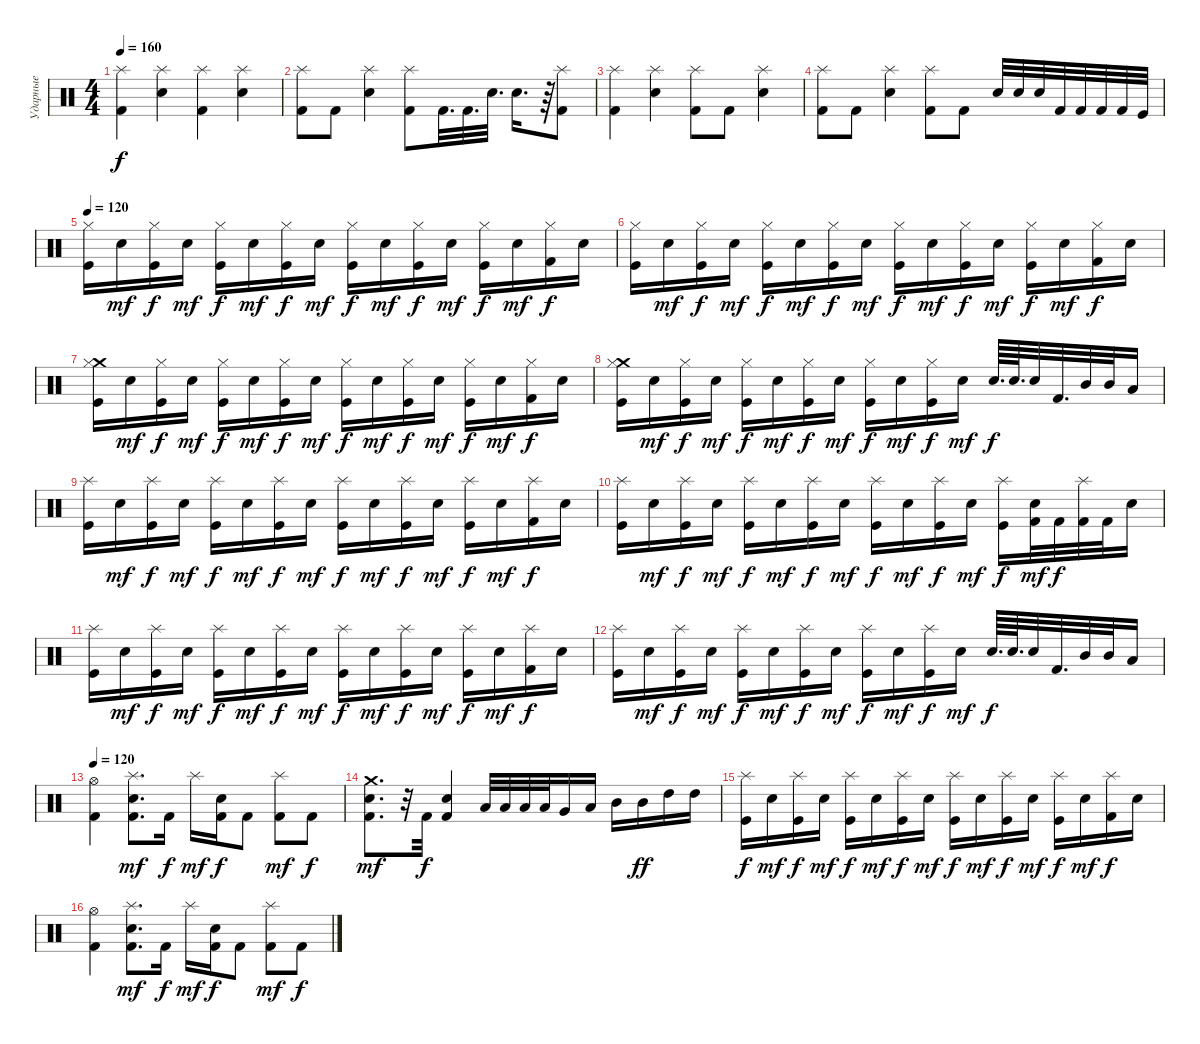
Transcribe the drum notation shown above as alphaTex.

\track ("Ударные" "Ударные") {instrument percussion}
\staff {score}
\articulation defaults
\ts (4 4)
\tempo 160
\clef neutral
\ks c
("Splash (hit)" "Kick (hit) 2").4{dy f} ("Splash (hit)" "Electric Snare (hit)").4 ("Splash (hit)" "Kick (hit) 2").4 ("Splash (hit)" "Electric Snare (hit)").4 |
("Splash (hit)" "Kick (hit) 2").8 "Kick (hit) 2".8 ("Splash (hit)" "Electric Snare (hit)").4 ("Splash (hit)" "Kick (hit) 2").8 "Kick (hit) 2".32{d} "Kick (hit) 2".32{d} "Electric Snare (hit)".32{d} "Electric Snare (hit)".16{d} r.64 ("Splash (hit)" "Kick (hit) 2").8 |
("Splash (hit)" "Kick (hit) 2").4 ("Splash (hit)" "Electric Snare (hit)").4 ("Splash (hit)" "Kick (hit) 2").8 "Kick (hit) 2".8 ("Splash (hit)" "Electric Snare (hit)").4 |
("Splash (hit)" "Kick (hit) 2").8 "Kick (hit) 2".8 ("Splash (hit)" "Electric Snare (hit)").4 ("Splash (hit)" "Kick (hit) 2").8 "Kick (hit) 2".8 "Electric Snare (hit)".32 "Electric Snare (hit)".32 "Electric Snare (hit)".32 "Kick (hit) 2".32 "Kick (hit) 2".32 "Kick (hit) 2".32 "Kick (hit) 2".32 "Kick (hit)".32 |
\tempo 120
("Hi-Hat (closed)" "Kick (hit)").16 "Electric Snare (hit)".16{dy mf} ("Hi-Hat (closed)" "Kick (hit)").16{dy f} "Electric Snare (hit)".16{dy mf} ("Hi-Hat (closed)" "Kick (hit)").16{dy f} "Electric Snare (hit)".16{dy mf} ("Hi-Hat (closed)" "Kick (hit)").16{dy f} "Electric Snare (hit)".16{dy mf} ("Hi-Hat (closed)" "Kick (hit)").16{dy f} "Electric Snare (hit)".16{dy mf} ("Hi-Hat (closed)" "Kick (hit)").16{dy f} "Electric Snare (hit)".16{dy mf} ("Hi-Hat (closed)" "Kick (hit)").16{dy f} "Electric Snare (hit)".16{dy mf} ("Hi-Hat (closed)" "Kick (hit) 2").16{dy f} "Electric Snare (hit)".16 |
("Hi-Hat (closed)" "Kick (hit)").16 "Electric Snare (hit)".16{dy mf} ("Hi-Hat (closed)" "Kick (hit)").16{dy f} "Electric Snare (hit)".16{dy mf} ("Hi-Hat (closed)" "Kick (hit)").16{dy f} "Electric Snare (hit)".16{dy mf} ("Hi-Hat (closed)" "Kick (hit)").16{dy f} "Electric Snare (hit)".16{dy mf} ("Hi-Hat (closed)" "Kick (hit)").16{dy f} "Electric Snare (hit)".16{dy mf} ("Hi-Hat (closed)" "Kick (hit)").16{dy f} "Electric Snare (hit)".16{dy mf} ("Hi-Hat (closed)" "Kick (hit)").16{dy f} "Electric Snare (hit)".16{dy mf} ("Hi-Hat (closed)" "Kick (hit) 2").16{dy f} "Electric Snare (hit)".16 |
("Crash medium (hit)" "Hi-Hat (closed)" "Kick (hit)").16 "Electric Snare (hit)".16{dy mf} ("Hi-Hat (closed)" "Kick (hit)").16{dy f} "Electric Snare (hit)".16{dy mf} ("Hi-Hat (closed)" "Kick (hit)").16{dy f} "Electric Snare (hit)".16{dy mf} ("Hi-Hat (closed)" "Kick (hit)").16{dy f} "Electric Snare (hit)".16{dy mf} ("Hi-Hat (closed)" "Kick (hit)").16{dy f} "Electric Snare (hit)".16{dy mf} ("Hi-Hat (closed)" "Kick (hit)").16{dy f} "Electric Snare (hit)".16{dy mf} ("Hi-Hat (closed)" "Kick (hit)").16{dy f} "Electric Snare (hit)".16{dy mf} ("Hi-Hat (closed)" "Kick (hit) 2").16{dy f} "Electric Snare (hit)".16 |
("Crash medium (hit)" "Hi-Hat (closed)" "Kick (hit)").16 "Electric Snare (hit)".16{dy mf} ("Hi-Hat (closed)" "Kick (hit)").16{dy f} "Electric Snare (hit)".16{dy mf} ("Hi-Hat (closed)" "Kick (hit)").16{dy f} "Electric Snare (hit)".16{dy mf} ("Hi-Hat (closed)" "Kick (hit)").16{dy f} "Electric Snare (hit)".16{dy mf} ("Hi-Hat (closed)" "Kick (hit)").16{dy f} "Electric Snare (hit)".16{dy mf} ("Hi-Hat (closed)" "Kick (hit)").16{dy f} "Electric Snare (hit)".16{dy mf} "Electric Snare (hit)".64{d dy f} "Electric Snare (hit)".64{d} "Electric Snare (hit)".32 "Kick (hit) 2".32{d} "Mid Tom (hit)".32 "Mid Tom (hit)".32 "Low Tom (hit)".16 |
("Splash (hit)" "Kick (hit)").16 "Electric Snare (hit)".16{dy mf} ("Splash (hit)" "Kick (hit)").16{dy f} "Electric Snare (hit)".16{dy mf} ("Splash (hit)" "Kick (hit)").16{dy f} "Electric Snare (hit)".16{dy mf} ("Splash (hit)" "Kick (hit)").16{dy f} "Electric Snare (hit)".16{dy mf} ("Splash (hit)" "Kick (hit)").16{dy f} "Electric Snare (hit)".16{dy mf} ("Splash (hit)" "Kick (hit)").16{dy f} "Electric Snare (hit)".16{dy mf} ("Splash (hit)" "Kick (hit)").16{dy f} "Electric Snare (hit)".16{dy mf} ("Splash (hit)" "Kick (hit) 2").16{dy f} "Electric Snare (hit)".16 |
("Splash (hit)" "Kick (hit)").16 "Electric Snare (hit)".16{dy mf} ("Splash (hit)" "Kick (hit)").16{dy f} "Electric Snare (hit)".16{dy mf} ("Splash (hit)" "Kick (hit)").16{dy f} "Electric Snare (hit)".16{dy mf} ("Splash (hit)" "Kick (hit)").16{dy f} "Electric Snare (hit)".16{dy mf} ("Splash (hit)" "Kick (hit)").16{dy f} "Electric Snare (hit)".16{dy mf} ("Splash (hit)" "Kick (hit)").16{dy f} "Electric Snare (hit)".16{dy mf} ("Splash (hit)" "Kick (hit)").16{dy f} ("Electric Snare (hit)" "Kick (hit) 2").32{dy mf} "Kick (hit) 2".32{dy f} ("Splash (hit)" "Kick (hit) 2").32 "Kick (hit) 2".32 "Electric Snare (hit)".16 |
("Splash (hit)" "Kick (hit)").16 "Electric Snare (hit)".16{dy mf} ("Splash (hit)" "Kick (hit)").16{dy f} "Electric Snare (hit)".16{dy mf} ("Splash (hit)" "Kick (hit)").16{dy f} "Electric Snare (hit)".16{dy mf} ("Splash (hit)" "Kick (hit)").16{dy f} "Electric Snare (hit)".16{dy mf} ("Splash (hit)" "Kick (hit)").16{dy f} "Electric Snare (hit)".16{dy mf} ("Splash (hit)" "Kick (hit)").16{dy f} "Electric Snare (hit)".16{dy mf} ("Splash (hit)" "Kick (hit)").16{dy f} "Electric Snare (hit)".16{dy mf} ("Splash (hit)" "Kick (hit) 2").16{dy f} "Electric Snare (hit)".16 |
("Splash (hit)" "Kick (hit)").16 "Electric Snare (hit)".16{dy mf} ("Splash (hit)" "Kick (hit)").16{dy f} "Electric Snare (hit)".16{dy mf} ("Splash (hit)" "Kick (hit)").16{dy f} "Electric Snare (hit)".16{dy mf} ("Splash (hit)" "Kick (hit)").16{dy f} "Electric Snare (hit)".16{dy mf} ("Splash (hit)" "Kick (hit)").16{dy f} "Electric Snare (hit)".16{dy mf} ("Splash (hit)" "Kick (hit)").16{dy f} "Electric Snare (hit)".16{dy mf} "Electric Snare (hit)".64{d dy f} "Electric Snare (hit)".64{d} "Electric Snare (hit)".32 "Kick (hit) 2".32{d} "Mid Tom (hit)".32 "Mid Tom (hit)".32 "Low Tom (hit)".16 |
\tempo 120
("Hi-Hat (open)" "Kick (hit) 2").4 ("Splash (hit)" "Electric Snare (hit)" "Kick (hit) 2").8{d dy mf} "Kick (hit) 2".16{dy f} "Splash (hit)".16{dy mf} ("Electric Snare (hit)" "Kick (hit) 2").16{dy f} "Kick (hit) 2".8 ("Splash (hit)" "Kick (hit) 2").8{dy mf} "Kick (hit) 2".8{dy f} |
("Crash medium (hit)" "Electric Snare (hit)" "Kick (hit) 2").8{d dy mf} r.32 "Kick (hit) 2".32{dy f} ("Electric Snare (hit)" "Kick (hit) 2").4 "Low Floor Tom (hit)".32 "Low Floor Tom (hit)".32 "Low Floor Tom (hit)".32 "Low Floor Tom (hit)".32 "Very Low Tom (hit)".16 "Low Tom (hit)".16 "Mid Tom (hit)".16 "Mid Tom (hit)".16{dy ff} "High Tom (hit)".16 "High Tom (hit)".16 |
("Splash (hit)" "Kick (hit)").16{dy f} "Electric Snare (hit)".16{dy mf} ("Splash (hit)" "Kick (hit)").16{dy f} "Electric Snare (hit)".16{dy mf} ("Splash (hit)" "Kick (hit)").16{dy f} "Electric Snare (hit)".16{dy mf} ("Splash (hit)" "Kick (hit)").16{dy f} "Electric Snare (hit)".16{dy mf} ("Splash (hit)" "Kick (hit)").16{dy f} "Electric Snare (hit)".16{dy mf} ("Splash (hit)" "Kick (hit)").16{dy f} "Electric Snare (hit)".16{dy mf} ("Splash (hit)" "Kick (hit)").16{dy f} "Electric Snare (hit)".16{dy mf} ("Splash (hit)" "Kick (hit) 2").16{dy f} "Electric Snare (hit)".16 |
("Hi-Hat (open)" "Kick (hit) 2").4 ("Splash (hit)" "Electric Snare (hit)" "Kick (hit) 2").8{d dy mf} "Kick (hit) 2".16{dy f} "Splash (hit)".16{dy mf} ("Electric Snare (hit)" "Kick (hit) 2").16{dy f} "Kick (hit) 2".8 ("Splash (hit)" "Kick (hit) 2").8{dy mf} "Kick (hit) 2".8{dy f}
